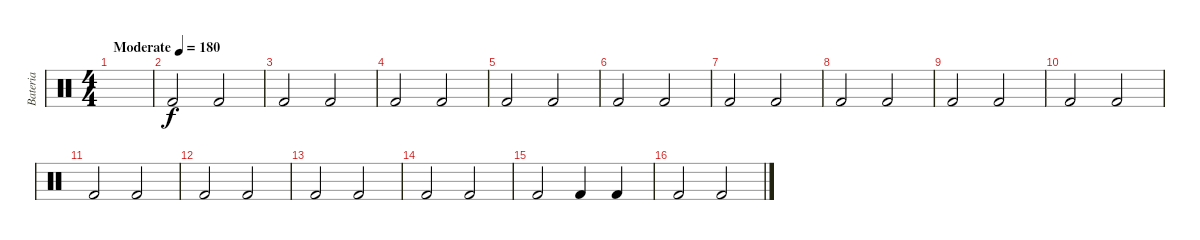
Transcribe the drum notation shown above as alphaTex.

\track ("Bateria" "Bateria") {instrument percussion}
\staff {score}
\articulation defaults
\ts (4 4)
\tempo (180 "Moderate")
\clef neutral
\ks c
|
"Kick (hit) 2".2 "Kick (hit) 2".2 |
"Kick (hit) 2".2 "Kick (hit) 2".2 |
"Kick (hit) 2".2 "Kick (hit) 2".2 |
"Kick (hit) 2".2 "Kick (hit) 2".2 |
"Kick (hit) 2".2 "Kick (hit) 2".2 |
"Kick (hit) 2".2 "Kick (hit) 2".2 |
"Kick (hit) 2".2 "Kick (hit) 2".2 |
"Kick (hit) 2".2 "Kick (hit) 2".2 |
"Kick (hit) 2".2 "Kick (hit) 2".2 |
"Kick (hit) 2".2 "Kick (hit) 2".2 |
"Kick (hit) 2".2 "Kick (hit) 2".2 |
"Kick (hit) 2".2 "Kick (hit) 2".2 |
"Kick (hit) 2".2 "Kick (hit) 2".2 |
"Kick (hit) 2".2 "Kick (hit) 2".4 "Kick (hit) 2".4 |
"Kick (hit) 2".2 "Kick (hit) 2".2
